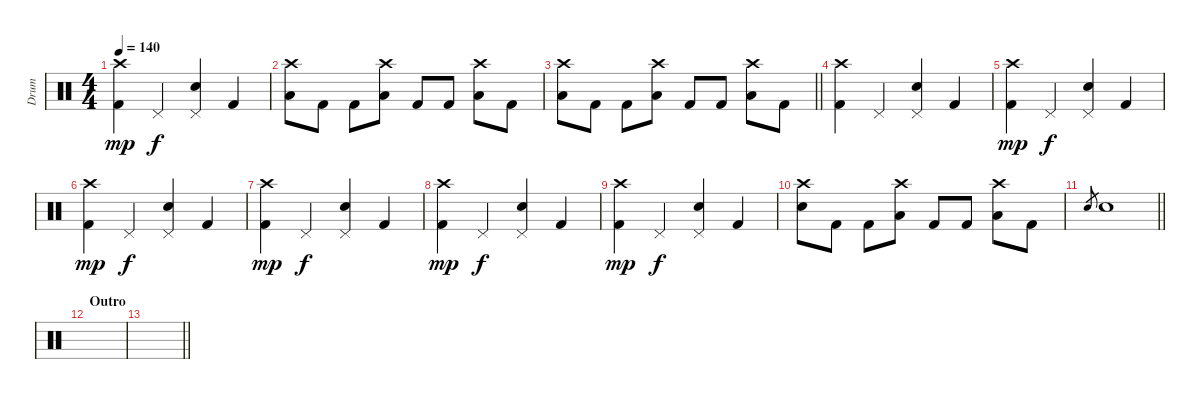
\track ("Drum" "Drum") {instrument percussion}
\staff {score}
\articulation defaults
\ts (4 4)
\tempo 140
\clef neutral
\ks c
("Kick (hit) 2" "Crash high (hit)").4{dy mp} "Pedal Hi-Hat (hit)".4{dy f} ("Electric Snare (hit)" "Pedal Hi-Hat (hit)").4 "Kick (hit) 2".4 |
("Low Tom (hit)" "Crash high (hit)").8 "Kick (hit) 2".8 "Kick (hit) 2".8 ("Low Tom (hit)" "Crash high (hit)").8 "Kick (hit) 2".8 "Kick (hit) 2".8 ("Low Tom (hit)" "Crash high (hit)").8 "Kick (hit) 2".8 |
\barLineRight lightlight
("Low Tom (hit)" "Crash high (hit)").8 "Kick (hit) 2".8 "Kick (hit) 2".8 ("Low Tom (hit)" "Crash high (hit)").8 "Kick (hit) 2".8 "Kick (hit) 2".8 ("Low Tom (hit)" "Crash high (hit)").8 "Kick (hit) 2".8 |
("Kick (hit) 2" "Crash high (hit)").4 "Pedal Hi-Hat (hit)".4 ("Electric Snare (hit)" "Pedal Hi-Hat (hit)").4 "Kick (hit) 2".4 |
("Kick (hit) 2" "Crash high (hit)").4{dy mp} "Pedal Hi-Hat (hit)".4{dy f} ("Electric Snare (hit)" "Pedal Hi-Hat (hit)").4 "Kick (hit) 2".4 |
("Kick (hit) 2" "Crash high (hit)").4{dy mp} "Pedal Hi-Hat (hit)".4{dy f} ("Electric Snare (hit)" "Pedal Hi-Hat (hit)").4 "Kick (hit) 2".4 |
("Kick (hit) 2" "Crash high (hit)").4{dy mp} "Pedal Hi-Hat (hit)".4{dy f} ("Electric Snare (hit)" "Pedal Hi-Hat (hit)").4 "Kick (hit) 2".4 |
("Kick (hit) 2" "Crash high (hit)").4{dy mp} "Pedal Hi-Hat (hit)".4{dy f} ("Electric Snare (hit)" "Pedal Hi-Hat (hit)").4 "Kick (hit) 2".4 |
("Kick (hit) 2" "Crash high (hit)").4{dy mp} "Pedal Hi-Hat (hit)".4{dy f} ("Electric Snare (hit)" "Pedal Hi-Hat (hit)").4 "Kick (hit) 2".4 |
("Electric Snare (hit)" "Crash high (hit)").8 "Kick (hit) 2".8 "Kick (hit) 2".8 ("Low Tom (hit)" "Crash high (hit)").8 "Kick (hit) 2".8 "Kick (hit) 2".8 ("Low Tom (hit)" "Crash high (hit)").8 "Kick (hit) 2".8 |
\barLineRight lightlight "Electric Snare (hit)".8{gr} "Electric Snare (hit)".1
|
\section ("" "Outro")
|
\barLineRight lightlight
